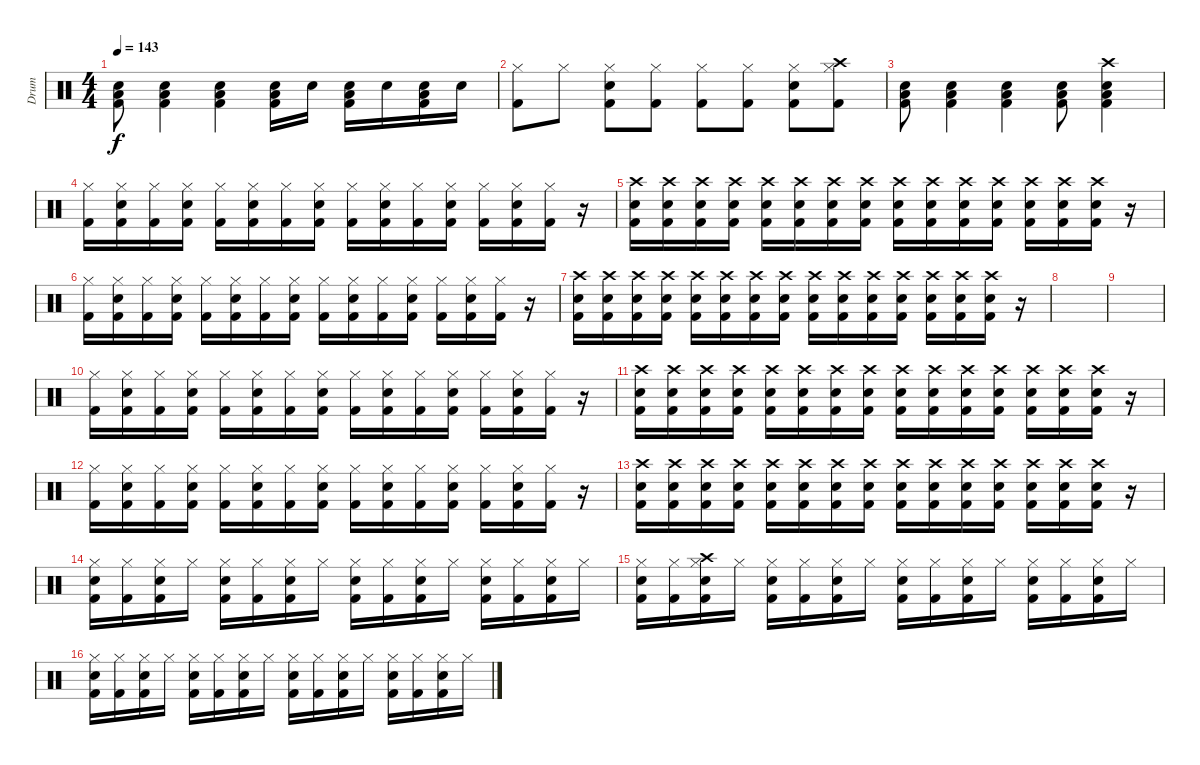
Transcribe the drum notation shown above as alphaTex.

\track ("Drum" "Drum") {instrument percussion}
\staff {score}
\articulation defaults
\ts (4 4)
\tempo 143
\clef neutral
\ks c
("Snare (hit) 2" "Kick (hit) 2" "Low Floor Tom (hit)").8{dy f} ("Snare (hit) 2" "Kick (hit) 2" "Low Floor Tom (hit)").4 ("Snare (hit) 2" "Kick (hit) 2" "Low Floor Tom (hit)").4 ("Snare (hit) 2" "Kick (hit) 2" "Low Floor Tom (hit)").16 "Snare (hit) 2".16 ("Snare (hit) 2" "Kick (hit) 2" "Low Floor Tom (hit)").16 "Snare (hit) 2".16 ("Snare (hit) 2" "Kick (hit) 2" "Low Floor Tom (hit)").16 "Snare (hit) 2".16 |
("Kick (hit) 2" "Hi-Hat (closed)").8 "Hi-Hat (closed)".8 ("Snare (hit) 2" "Kick (hit) 2" "Hi-Hat (closed)").8 ("Kick (hit) 2" "Hi-Hat (closed)").8 ("Kick (hit) 2" "Hi-Hat (closed)").8 ("Kick (hit) 2" "Hi-Hat (closed)").8 ("Snare (hit) 2" "Kick (hit) 2" "Hi-Hat (closed)").8 ("Crash high (hit)" "Kick (hit) 2" "Hi-Hat (closed)").8 |
("Snare (hit) 2" "Kick (hit) 2" "Low Floor Tom (hit)").8 ("Snare (hit) 2" "Kick (hit) 2" "Low Floor Tom (hit)").4 ("Snare (hit) 2" "Kick (hit) 2" "Low Floor Tom (hit)").4 ("Snare (hit) 2" "Kick (hit) 2" "Low Floor Tom (hit)").8 ("Crash high (hit)" "Snare (hit) 2" "Kick (hit) 2" "Low Floor Tom (hit)").4 |
("Kick (hit) 2" "Hi-Hat (closed)").16 ("Kick (hit) 2" "Snare (hit) 2" "Hi-Hat (closed)").16 ("Kick (hit) 2" "Hi-Hat (closed)").16 ("Kick (hit) 2" "Snare (hit) 2" "Hi-Hat (closed)").16 ("Kick (hit) 2" "Hi-Hat (closed)").16 ("Kick (hit) 2" "Snare (hit) 2" "Hi-Hat (closed)").16 ("Kick (hit) 2" "Hi-Hat (closed)").16 ("Kick (hit) 2" "Snare (hit) 2" "Hi-Hat (closed)").16 ("Kick (hit) 2" "Hi-Hat (closed)").16 ("Kick (hit) 2" "Snare (hit) 2" "Hi-Hat (closed)").16 ("Kick (hit) 2" "Hi-Hat (closed)").16 ("Kick (hit) 2" "Snare (hit) 2" "Hi-Hat (closed)").16 ("Kick (hit) 2" "Hi-Hat (closed)").16 ("Kick (hit) 2" "Snare (hit) 2" "Hi-Hat (closed)").16 ("Kick (hit) 2" "Hi-Hat (closed)").16 r.16 |
("Snare (hit) 2" "Kick (hit) 2" "Crash high (hit)").16 ("Snare (hit) 2" "Kick (hit) 2" "Crash high (hit)").16 ("Snare (hit) 2" "Kick (hit) 2" "Crash high (hit)").16 ("Snare (hit) 2" "Kick (hit) 2" "Crash high (hit)").16 ("Snare (hit) 2" "Kick (hit) 2" "Crash high (hit)").16 ("Snare (hit) 2" "Kick (hit) 2" "Crash high (hit)").16 ("Snare (hit) 2" "Kick (hit) 2" "Crash high (hit)").16 ("Snare (hit) 2" "Kick (hit) 2" "Crash high (hit)").16 ("Snare (hit) 2" "Kick (hit) 2" "Crash high (hit)").16 ("Snare (hit) 2" "Kick (hit) 2" "Crash high (hit)").16 ("Snare (hit) 2" "Kick (hit) 2" "Crash high (hit)").16 ("Snare (hit) 2" "Kick (hit) 2" "Crash high (hit)").16 ("Snare (hit) 2" "Kick (hit) 2" "Crash high (hit)").16 ("Snare (hit) 2" "Kick (hit) 2" "Crash high (hit)").16 ("Snare (hit) 2" "Kick (hit) 2" "Crash high (hit)").16 r.16 |
("Kick (hit) 2" "Hi-Hat (closed)").16 ("Kick (hit) 2" "Snare (hit) 2" "Hi-Hat (closed)").16 ("Kick (hit) 2" "Hi-Hat (closed)").16 ("Kick (hit) 2" "Snare (hit) 2" "Hi-Hat (closed)").16 ("Kick (hit) 2" "Hi-Hat (closed)").16 ("Kick (hit) 2" "Snare (hit) 2" "Hi-Hat (closed)").16 ("Kick (hit) 2" "Hi-Hat (closed)").16 ("Kick (hit) 2" "Snare (hit) 2" "Hi-Hat (closed)").16 ("Kick (hit) 2" "Hi-Hat (closed)").16 ("Kick (hit) 2" "Snare (hit) 2" "Hi-Hat (closed)").16 ("Kick (hit) 2" "Hi-Hat (closed)").16 ("Kick (hit) 2" "Snare (hit) 2" "Hi-Hat (closed)").16 ("Kick (hit) 2" "Hi-Hat (closed)").16 ("Kick (hit) 2" "Snare (hit) 2" "Hi-Hat (closed)").16 ("Kick (hit) 2" "Hi-Hat (closed)").16 r.16 |
("Snare (hit) 2" "Kick (hit) 2" "Crash high (hit)").16 ("Snare (hit) 2" "Kick (hit) 2" "Crash high (hit)").16 ("Snare (hit) 2" "Kick (hit) 2" "Crash high (hit)").16 ("Snare (hit) 2" "Kick (hit) 2" "Crash high (hit)").16 ("Snare (hit) 2" "Kick (hit) 2" "Crash high (hit)").16 ("Snare (hit) 2" "Kick (hit) 2" "Crash high (hit)").16 ("Snare (hit) 2" "Kick (hit) 2" "Crash high (hit)").16 ("Snare (hit) 2" "Kick (hit) 2" "Crash high (hit)").16 ("Snare (hit) 2" "Kick (hit) 2" "Crash high (hit)").16 ("Snare (hit) 2" "Kick (hit) 2" "Crash high (hit)").16 ("Snare (hit) 2" "Kick (hit) 2" "Crash high (hit)").16 ("Snare (hit) 2" "Kick (hit) 2" "Crash high (hit)").16 ("Snare (hit) 2" "Kick (hit) 2" "Crash high (hit)").16 ("Snare (hit) 2" "Kick (hit) 2" "Crash high (hit)").16 ("Snare (hit) 2" "Kick (hit) 2" "Crash high (hit)").16 r.16 |
|
|
("Kick (hit) 2" "Hi-Hat (closed)").16 ("Kick (hit) 2" "Snare (hit) 2" "Hi-Hat (closed)").16 ("Kick (hit) 2" "Hi-Hat (closed)").16 ("Kick (hit) 2" "Snare (hit) 2" "Hi-Hat (closed)").16 ("Kick (hit) 2" "Hi-Hat (closed)").16 ("Kick (hit) 2" "Snare (hit) 2" "Hi-Hat (closed)").16 ("Kick (hit) 2" "Hi-Hat (closed)").16 ("Kick (hit) 2" "Snare (hit) 2" "Hi-Hat (closed)").16 ("Kick (hit) 2" "Hi-Hat (closed)").16 ("Kick (hit) 2" "Snare (hit) 2" "Hi-Hat (closed)").16 ("Kick (hit) 2" "Hi-Hat (closed)").16 ("Kick (hit) 2" "Snare (hit) 2" "Hi-Hat (closed)").16 ("Kick (hit) 2" "Hi-Hat (closed)").16 ("Kick (hit) 2" "Snare (hit) 2" "Hi-Hat (closed)").16 ("Kick (hit) 2" "Hi-Hat (closed)").16 r.16 |
("Snare (hit) 2" "Kick (hit) 2" "Crash high (hit)").16 ("Snare (hit) 2" "Kick (hit) 2" "Crash high (hit)").16 ("Snare (hit) 2" "Kick (hit) 2" "Crash high (hit)").16 ("Snare (hit) 2" "Kick (hit) 2" "Crash high (hit)").16 ("Snare (hit) 2" "Kick (hit) 2" "Crash high (hit)").16 ("Snare (hit) 2" "Kick (hit) 2" "Crash high (hit)").16 ("Snare (hit) 2" "Kick (hit) 2" "Crash high (hit)").16 ("Snare (hit) 2" "Kick (hit) 2" "Crash high (hit)").16 ("Snare (hit) 2" "Kick (hit) 2" "Crash high (hit)").16 ("Snare (hit) 2" "Kick (hit) 2" "Crash high (hit)").16 ("Snare (hit) 2" "Kick (hit) 2" "Crash high (hit)").16 ("Snare (hit) 2" "Kick (hit) 2" "Crash high (hit)").16 ("Snare (hit) 2" "Kick (hit) 2" "Crash high (hit)").16 ("Snare (hit) 2" "Kick (hit) 2" "Crash high (hit)").16 ("Snare (hit) 2" "Kick (hit) 2" "Crash high (hit)").16 r.16 |
("Kick (hit) 2" "Hi-Hat (closed)").16 ("Kick (hit) 2" "Snare (hit) 2" "Hi-Hat (closed)").16 ("Kick (hit) 2" "Hi-Hat (closed)").16 ("Kick (hit) 2" "Snare (hit) 2" "Hi-Hat (closed)").16 ("Kick (hit) 2" "Hi-Hat (closed)").16 ("Kick (hit) 2" "Snare (hit) 2" "Hi-Hat (closed)").16 ("Kick (hit) 2" "Hi-Hat (closed)").16 ("Kick (hit) 2" "Snare (hit) 2" "Hi-Hat (closed)").16 ("Kick (hit) 2" "Hi-Hat (closed)").16 ("Kick (hit) 2" "Snare (hit) 2" "Hi-Hat (closed)").16 ("Kick (hit) 2" "Hi-Hat (closed)").16 ("Kick (hit) 2" "Snare (hit) 2" "Hi-Hat (closed)").16 ("Kick (hit) 2" "Hi-Hat (closed)").16 ("Kick (hit) 2" "Snare (hit) 2" "Hi-Hat (closed)").16 ("Kick (hit) 2" "Hi-Hat (closed)").16 r.16 |
("Snare (hit) 2" "Kick (hit) 2" "Crash high (hit)").16 ("Snare (hit) 2" "Kick (hit) 2" "Crash high (hit)").16 ("Snare (hit) 2" "Kick (hit) 2" "Crash high (hit)").16 ("Snare (hit) 2" "Kick (hit) 2" "Crash high (hit)").16 ("Snare (hit) 2" "Kick (hit) 2" "Crash high (hit)").16 ("Snare (hit) 2" "Kick (hit) 2" "Crash high (hit)").16 ("Snare (hit) 2" "Kick (hit) 2" "Crash high (hit)").16 ("Snare (hit) 2" "Kick (hit) 2" "Crash high (hit)").16 ("Snare (hit) 2" "Kick (hit) 2" "Crash high (hit)").16 ("Snare (hit) 2" "Kick (hit) 2" "Crash high (hit)").16 ("Snare (hit) 2" "Kick (hit) 2" "Crash high (hit)").16 ("Snare (hit) 2" "Kick (hit) 2" "Crash high (hit)").16 ("Snare (hit) 2" "Kick (hit) 2" "Crash high (hit)").16 ("Snare (hit) 2" "Kick (hit) 2" "Crash high (hit)").16 ("Snare (hit) 2" "Kick (hit) 2" "Crash high (hit)").16 r.16 |
("Snare (hit) 2" "Kick (hit) 2" "Hi-Hat (closed)").16 ("Kick (hit) 2" "Hi-Hat (closed)").16 ("Snare (hit) 2" "Kick (hit) 2" "Hi-Hat (closed)").16 "Hi-Hat (closed)".16 ("Snare (hit) 2" "Kick (hit) 2" "Hi-Hat (closed)").16 ("Kick (hit) 2" "Hi-Hat (closed)").16 ("Snare (hit) 2" "Kick (hit) 2" "Hi-Hat (closed)").16 "Hi-Hat (closed)".16 ("Snare (hit) 2" "Kick (hit) 2" "Hi-Hat (closed)").16 ("Kick (hit) 2" "Hi-Hat (closed)").16 ("Snare (hit) 2" "Kick (hit) 2" "Hi-Hat (closed)").16 "Hi-Hat (closed)".16 ("Snare (hit) 2" "Kick (hit) 2" "Hi-Hat (closed)").16 ("Kick (hit) 2" "Hi-Hat (closed)").16 ("Snare (hit) 2" "Kick (hit) 2" "Hi-Hat (closed)").16 "Hi-Hat (closed)".16 |
("Snare (hit) 2" "Kick (hit) 2" "Hi-Hat (closed)").16 ("Kick (hit) 2" "Hi-Hat (closed)").16 ("Crash high (hit)" "Snare (hit) 2" "Kick (hit) 2" "Hi-Hat (closed)").16 "Hi-Hat (closed)".16 ("Snare (hit) 2" "Kick (hit) 2" "Hi-Hat (closed)").16 ("Kick (hit) 2" "Hi-Hat (closed)").16 ("Snare (hit) 2" "Kick (hit) 2" "Hi-Hat (closed)").16 "Hi-Hat (closed)".16 ("Snare (hit) 2" "Kick (hit) 2" "Hi-Hat (closed)").16 ("Kick (hit) 2" "Hi-Hat (closed)").16 ("Snare (hit) 2" "Kick (hit) 2" "Hi-Hat (closed)").16 "Hi-Hat (closed)".16 ("Snare (hit) 2" "Kick (hit) 2" "Hi-Hat (closed)").16 ("Kick (hit) 2" "Hi-Hat (closed)").16 ("Snare (hit) 2" "Kick (hit) 2" "Hi-Hat (closed)").16 "Hi-Hat (closed)".16 |
("Snare (hit) 2" "Kick (hit) 2" "Hi-Hat (closed)").16 ("Kick (hit) 2" "Hi-Hat (closed)").16 ("Snare (hit) 2" "Kick (hit) 2" "Hi-Hat (closed)").16 "Hi-Hat (closed)".16 ("Snare (hit) 2" "Kick (hit) 2" "Hi-Hat (closed)").16 ("Kick (hit) 2" "Hi-Hat (closed)").16 ("Snare (hit) 2" "Kick (hit) 2" "Hi-Hat (closed)").16 "Hi-Hat (closed)".16 ("Snare (hit) 2" "Kick (hit) 2" "Hi-Hat (closed)").16 ("Kick (hit) 2" "Hi-Hat (closed)").16 ("Snare (hit) 2" "Kick (hit) 2" "Hi-Hat (closed)").16 "Hi-Hat (closed)".16 ("Snare (hit) 2" "Kick (hit) 2" "Hi-Hat (closed)").16 ("Kick (hit) 2" "Hi-Hat (closed)").16 ("Snare (hit) 2" "Kick (hit) 2" "Hi-Hat (closed)").16 "Hi-Hat (closed)".16
